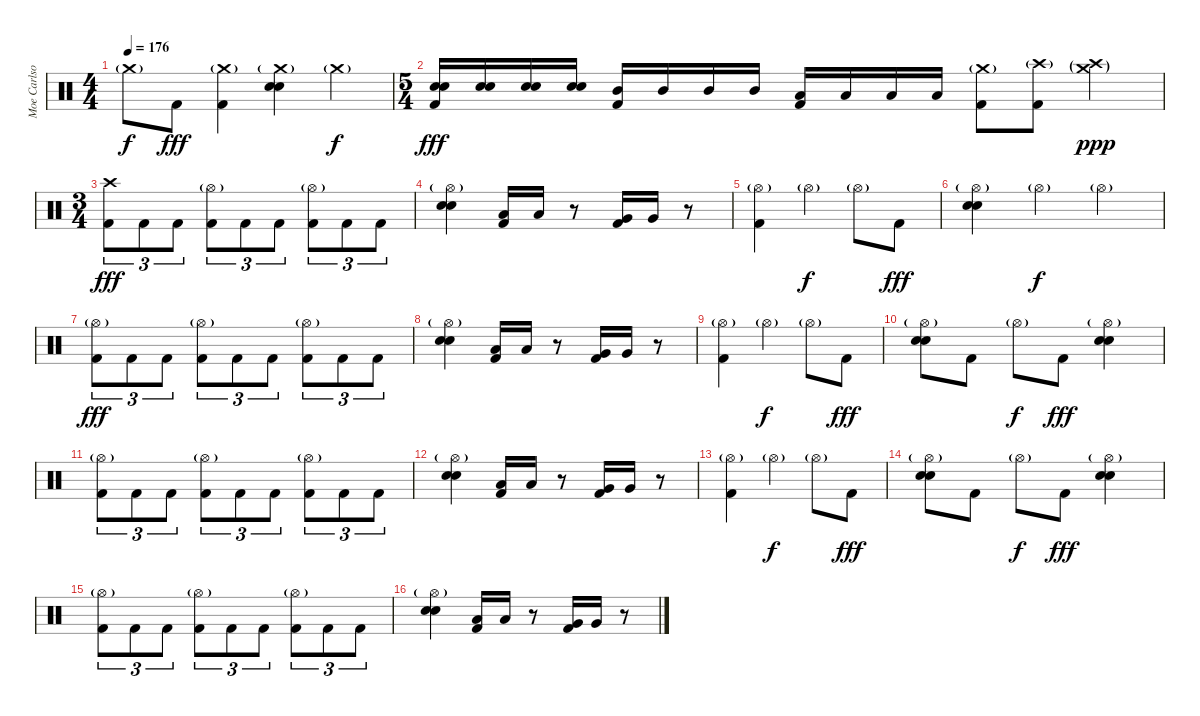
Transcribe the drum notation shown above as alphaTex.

\track ("Moe Carlson" "Moe Carlso") {instrument percussion}
\staff {score}
\articulation defaults
\ts (4 4)
\tempo 176
\clef neutral
\ks c "Crash medium (hit)"{g}.8{dy f} "Kick (hit) 2".8{dy fff}
("Crash medium (hit)"{g} "Kick (hit) 2").4 ("Crash medium (hit)"{g} "Snare (hit) 2" "Electric Snare (hit)").4 "Crash medium (hit)"{g}.4{dy f} |
\ts (5 4)
("Snare (hit) 2" "Electric Snare (hit)" "Kick (hit) 2").16{dy fff} ("Snare (hit) 2" "Electric Snare (hit)").16 ("Snare (hit) 2" "Electric Snare (hit)").16 ("Snare (hit) 2" "Electric Snare (hit)").16 ("Mid Tom (hit)" "Kick (hit) 2").16 "Mid Tom (hit)".16 "Mid Tom (hit)".16 "Mid Tom (hit)".16 ("Low Tom (hit)" "Kick (hit) 2").16 "Low Tom (hit)".16 "Low Tom (hit)".16 "Low Tom (hit)".16 ("Crash medium (hit)"{g} "Kick (hit) 2").8 ("Crash high (hit)"{g} "Kick (hit) 2").8 ("Crash medium (hit)"{g} "Crash high (hit)"{g}).4{dy ppp} |
\ts (3 4)
("Crash high (hit)" "Kick (hit) 2").8{tu (3 2) dy fff} "Kick (hit) 2".8{tu (3 2)} "Kick (hit) 2".8{tu (3 2)} ("Hi-Hat (open)"{g} "Kick (hit) 2").8{tu (3 2)} "Kick (hit) 2".8{tu (3 2)} "Kick (hit) 2".8{tu (3 2)} ("Hi-Hat (open)"{g} "Kick (hit) 2").8{tu (3 2)} "Kick (hit) 2".8{tu (3 2)} "Kick (hit) 2".8{tu (3 2)} |
("Hi-Hat (open)"{g} "Snare (hit) 2" "Electric Snare (hit)").4 ("Low Tom (hit)" "Kick (hit) 2").16 "Low Tom (hit)".16 r.8 ("Very Low Tom (hit)" "Kick (hit) 2").16 "Very Low Tom (hit)".16 r.8 |
("Hi-Hat (open)"{g} "Kick (hit) 2").4 "Hi-Hat (open)"{g}.4{dy f} "Hi-Hat (open)"{g}.8 "Kick (hit) 2".8{dy fff} |
("Hi-Hat (open)"{g} "Snare (hit) 2" "Electric Snare (hit)").4 "Hi-Hat (open)"{g}.4{dy f} "Hi-Hat (open)"{g}.4 |
("Hi-Hat (open)"{g} "Kick (hit) 2").8{tu (3 2) dy fff} "Kick (hit) 2".8{tu (3 2)} "Kick (hit) 2".8{tu (3 2)} ("Hi-Hat (open)"{g} "Kick (hit) 2").8{tu (3 2)} "Kick (hit) 2".8{tu (3 2)} "Kick (hit) 2".8{tu (3 2)} ("Hi-Hat (open)"{g} "Kick (hit) 2").8{tu (3 2)} "Kick (hit) 2".8{tu (3 2)} "Kick (hit) 2".8{tu (3 2)} |
("Hi-Hat (open)"{g} "Snare (hit) 2" "Electric Snare (hit)").4 ("Low Tom (hit)" "Kick (hit) 2").16 "Low Tom (hit)".16 r.8 ("Very Low Tom (hit)" "Kick (hit) 2").16 "Very Low Tom (hit)".16 r.8 |
("Hi-Hat (open)"{g} "Kick (hit) 2").4 "Hi-Hat (open)"{g}.4{dy f} "Hi-Hat (open)"{g}.8 "Kick (hit) 2".8{dy fff} |
("Hi-Hat (open)"{g} "Snare (hit) 2" "Electric Snare (hit)").8 "Kick (hit) 2".8 "Hi-Hat (open)"{g}.8{dy f} "Kick (hit) 2".8{dy fff} ("Hi-Hat (open)"{g} "Snare (hit) 2" "Electric Snare (hit)").4 |
("Hi-Hat (open)"{g} "Kick (hit) 2").8{tu (3 2)} "Kick (hit) 2".8{tu (3 2)} "Kick (hit) 2".8{tu (3 2)} ("Hi-Hat (open)"{g} "Kick (hit) 2").8{tu (3 2)} "Kick (hit) 2".8{tu (3 2)} "Kick (hit) 2".8{tu (3 2)} ("Hi-Hat (open)"{g} "Kick (hit) 2").8{tu (3 2)} "Kick (hit) 2".8{tu (3 2)} "Kick (hit) 2".8{tu (3 2)} |
("Hi-Hat (open)"{g} "Snare (hit) 2" "Electric Snare (hit)").4 ("Low Tom (hit)" "Kick (hit) 2").16 "Low Tom (hit)".16 r.8 ("Very Low Tom (hit)" "Kick (hit) 2").16 "Very Low Tom (hit)".16 r.8 |
("Hi-Hat (open)"{g} "Kick (hit) 2").4 "Hi-Hat (open)"{g}.4{dy f} "Hi-Hat (open)"{g}.8 "Kick (hit) 2".8{dy fff} |
("Hi-Hat (open)"{g} "Snare (hit) 2" "Electric Snare (hit)").8 "Kick (hit) 2".8 "Hi-Hat (open)"{g}.8{dy f} "Kick (hit) 2".8{dy fff} ("Hi-Hat (open)"{g} "Snare (hit) 2" "Electric Snare (hit)").4 |
("Hi-Hat (open)"{g} "Kick (hit) 2").8{tu (3 2)} "Kick (hit) 2".8{tu (3 2)} "Kick (hit) 2".8{tu (3 2)} ("Hi-Hat (open)"{g} "Kick (hit) 2").8{tu (3 2)} "Kick (hit) 2".8{tu (3 2)} "Kick (hit) 2".8{tu (3 2)} ("Hi-Hat (open)"{g} "Kick (hit) 2").8{tu (3 2)} "Kick (hit) 2".8{tu (3 2)} "Kick (hit) 2".8{tu (3 2)} |
("Hi-Hat (open)"{g} "Snare (hit) 2" "Electric Snare (hit)").4 ("Low Tom (hit)" "Kick (hit) 2").16 "Low Tom (hit)".16 r.8 ("Very Low Tom (hit)" "Kick (hit) 2").16 "Very Low Tom (hit)".16 r.8
